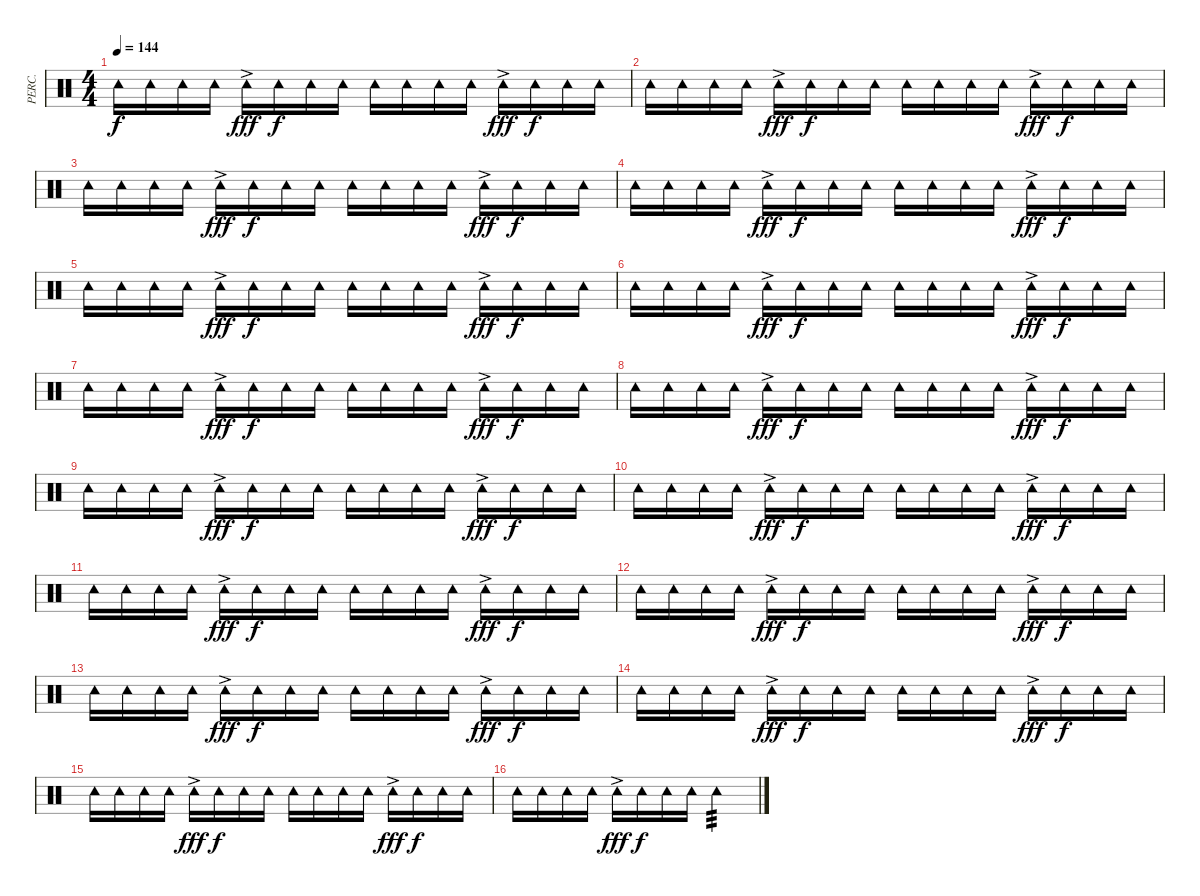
\track ("PERC." "PERC.") {instrument percussion}
\staff {score}
\articulation defaults
\ts (4 4)
\tempo 144
\clef neutral
\ks c "Tambourine (hit)".16{dy f} "Tambourine (hit)".16 "Tambourine (hit)".16 "Tambourine (hit)".16 "Tambourine (hit)"{ac}.16{dy fff} "Tambourine (hit)".16{dy f} "Tambourine (hit)".16 "Tambourine (hit)".16 "Tambourine (hit)".16 "Tambourine (hit)".16 "Tambourine (hit)".16 "Tambourine (hit)".16 "Tambourine (hit)"{ac}.16{dy fff} "Tambourine (hit)".16{dy f} "Tambourine (hit)".16 "Tambourine (hit)".16
|
"Tambourine (hit)".16 "Tambourine (hit)".16 "Tambourine (hit)".16 "Tambourine (hit)".16 "Tambourine (hit)"{ac}.16{dy fff} "Tambourine (hit)".16{dy f} "Tambourine (hit)".16 "Tambourine (hit)".16 "Tambourine (hit)".16 "Tambourine (hit)".16 "Tambourine (hit)".16 "Tambourine (hit)".16 "Tambourine (hit)"{ac}.16{dy fff} "Tambourine (hit)".16{dy f} "Tambourine (hit)".16 "Tambourine (hit)".16 |
"Tambourine (hit)".16 "Tambourine (hit)".16 "Tambourine (hit)".16 "Tambourine (hit)".16 "Tambourine (hit)"{ac}.16{dy fff} "Tambourine (hit)".16{dy f} "Tambourine (hit)".16 "Tambourine (hit)".16 "Tambourine (hit)".16 "Tambourine (hit)".16 "Tambourine (hit)".16 "Tambourine (hit)".16 "Tambourine (hit)"{ac}.16{dy fff} "Tambourine (hit)".16{dy f} "Tambourine (hit)".16 "Tambourine (hit)".16 |
"Tambourine (hit)".16 "Tambourine (hit)".16 "Tambourine (hit)".16 "Tambourine (hit)".16 "Tambourine (hit)"{ac}.16{dy fff} "Tambourine (hit)".16{dy f} "Tambourine (hit)".16 "Tambourine (hit)".16 "Tambourine (hit)".16 "Tambourine (hit)".16 "Tambourine (hit)".16 "Tambourine (hit)".16 "Tambourine (hit)"{ac}.16{dy fff} "Tambourine (hit)".16{dy f} "Tambourine (hit)".16 "Tambourine (hit)".16 |
"Tambourine (hit)".16 "Tambourine (hit)".16 "Tambourine (hit)".16 "Tambourine (hit)".16 "Tambourine (hit)"{ac}.16{dy fff} "Tambourine (hit)".16{dy f} "Tambourine (hit)".16 "Tambourine (hit)".16 "Tambourine (hit)".16 "Tambourine (hit)".16 "Tambourine (hit)".16 "Tambourine (hit)".16 "Tambourine (hit)"{ac}.16{dy fff} "Tambourine (hit)".16{dy f} "Tambourine (hit)".16 "Tambourine (hit)".16 |
"Tambourine (hit)".16 "Tambourine (hit)".16 "Tambourine (hit)".16 "Tambourine (hit)".16 "Tambourine (hit)"{ac}.16{dy fff} "Tambourine (hit)".16{dy f} "Tambourine (hit)".16 "Tambourine (hit)".16 "Tambourine (hit)".16 "Tambourine (hit)".16 "Tambourine (hit)".16 "Tambourine (hit)".16 "Tambourine (hit)"{ac}.16{dy fff} "Tambourine (hit)".16{dy f} "Tambourine (hit)".16 "Tambourine (hit)".16 |
"Tambourine (hit)".16 "Tambourine (hit)".16 "Tambourine (hit)".16 "Tambourine (hit)".16 "Tambourine (hit)"{ac}.16{dy fff} "Tambourine (hit)".16{dy f} "Tambourine (hit)".16 "Tambourine (hit)".16 "Tambourine (hit)".16 "Tambourine (hit)".16 "Tambourine (hit)".16 "Tambourine (hit)".16 "Tambourine (hit)"{ac}.16{dy fff} "Tambourine (hit)".16{dy f} "Tambourine (hit)".16 "Tambourine (hit)".16 |
"Tambourine (hit)".16 "Tambourine (hit)".16 "Tambourine (hit)".16 "Tambourine (hit)".16 "Tambourine (hit)"{ac}.16{dy fff} "Tambourine (hit)".16{dy f} "Tambourine (hit)".16 "Tambourine (hit)".16 "Tambourine (hit)".16 "Tambourine (hit)".16 "Tambourine (hit)".16 "Tambourine (hit)".16 "Tambourine (hit)"{ac}.16{dy fff} "Tambourine (hit)".16{dy f} "Tambourine (hit)".16 "Tambourine (hit)".16 |
"Tambourine (hit)".16 "Tambourine (hit)".16 "Tambourine (hit)".16 "Tambourine (hit)".16 "Tambourine (hit)"{ac}.16{dy fff} "Tambourine (hit)".16{dy f} "Tambourine (hit)".16 "Tambourine (hit)".16 "Tambourine (hit)".16 "Tambourine (hit)".16 "Tambourine (hit)".16 "Tambourine (hit)".16 "Tambourine (hit)"{ac}.16{dy fff} "Tambourine (hit)".16{dy f} "Tambourine (hit)".16 "Tambourine (hit)".16 |
"Tambourine (hit)".16 "Tambourine (hit)".16 "Tambourine (hit)".16 "Tambourine (hit)".16 "Tambourine (hit)"{ac}.16{dy fff} "Tambourine (hit)".16{dy f} "Tambourine (hit)".16 "Tambourine (hit)".16 "Tambourine (hit)".16 "Tambourine (hit)".16 "Tambourine (hit)".16 "Tambourine (hit)".16 "Tambourine (hit)"{ac}.16{dy fff} "Tambourine (hit)".16{dy f} "Tambourine (hit)".16 "Tambourine (hit)".16 |
"Tambourine (hit)".16 "Tambourine (hit)".16 "Tambourine (hit)".16 "Tambourine (hit)".16 "Tambourine (hit)"{ac}.16{dy fff} "Tambourine (hit)".16{dy f} "Tambourine (hit)".16 "Tambourine (hit)".16 "Tambourine (hit)".16 "Tambourine (hit)".16 "Tambourine (hit)".16 "Tambourine (hit)".16 "Tambourine (hit)"{ac}.16{dy fff} "Tambourine (hit)".16{dy f} "Tambourine (hit)".16 "Tambourine (hit)".16 |
"Tambourine (hit)".16 "Tambourine (hit)".16 "Tambourine (hit)".16 "Tambourine (hit)".16 "Tambourine (hit)"{ac}.16{dy fff} "Tambourine (hit)".16{dy f} "Tambourine (hit)".16 "Tambourine (hit)".16 "Tambourine (hit)".16 "Tambourine (hit)".16 "Tambourine (hit)".16 "Tambourine (hit)".16 "Tambourine (hit)"{ac}.16{dy fff} "Tambourine (hit)".16{dy f} "Tambourine (hit)".16 "Tambourine (hit)".16 |
"Tambourine (hit)".16 "Tambourine (hit)".16 "Tambourine (hit)".16 "Tambourine (hit)".16 "Tambourine (hit)"{ac}.16{dy fff} "Tambourine (hit)".16{dy f} "Tambourine (hit)".16 "Tambourine (hit)".16 "Tambourine (hit)".16 "Tambourine (hit)".16 "Tambourine (hit)".16 "Tambourine (hit)".16 "Tambourine (hit)"{ac}.16{dy fff} "Tambourine (hit)".16{dy f} "Tambourine (hit)".16 "Tambourine (hit)".16 |
"Tambourine (hit)".16 "Tambourine (hit)".16 "Tambourine (hit)".16 "Tambourine (hit)".16 "Tambourine (hit)"{ac}.16{dy fff} "Tambourine (hit)".16{dy f} "Tambourine (hit)".16 "Tambourine (hit)".16 "Tambourine (hit)".16 "Tambourine (hit)".16 "Tambourine (hit)".16 "Tambourine (hit)".16 "Tambourine (hit)"{ac}.16{dy fff} "Tambourine (hit)".16{dy f} "Tambourine (hit)".16 "Tambourine (hit)".16 |
"Tambourine (hit)".16 "Tambourine (hit)".16 "Tambourine (hit)".16 "Tambourine (hit)".16 "Tambourine (hit)"{ac}.16{dy fff} "Tambourine (hit)".16{dy f} "Tambourine (hit)".16 "Tambourine (hit)".16 "Tambourine (hit)".16 "Tambourine (hit)".16 "Tambourine (hit)".16 "Tambourine (hit)".16 "Tambourine (hit)"{ac}.16{dy fff} "Tambourine (hit)".16{dy f} "Tambourine (hit)".16 "Tambourine (hit)".16 |
"Tambourine (hit)".16 "Tambourine (hit)".16 "Tambourine (hit)".16 "Tambourine (hit)".16 "Tambourine (hit)"{ac}.16{dy fff} "Tambourine (hit)".16{dy f} "Tambourine (hit)".16 "Tambourine (hit)".16 "Tambourine (hit)".2{tp 3}
